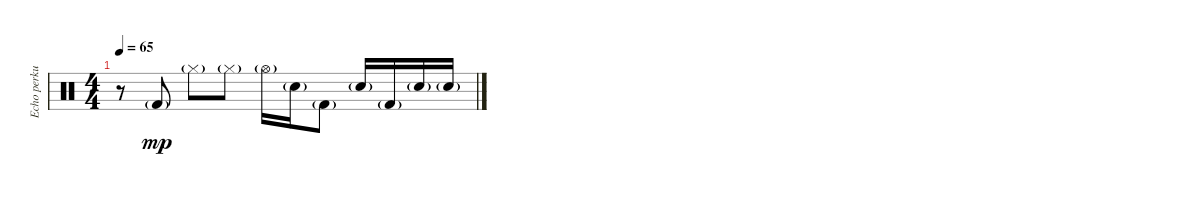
\track ("Echo perkusji 2" "Echo perku") {instrument percussion}
\staff {score}
\articulation defaults
\ts (4 4)
\tempo 65
\clef neutral
\ks c
r.8{dy mp} "Kick (hit) 2"{g}.8 "Hi-Hat (closed)"{g}.8 "Hi-Hat (closed)"{g}.8 "Hi-Hat (open)"{g}.16 "Snare (hit) 2"{g}.16 "Kick (hit) 2"{g}.8 "Snare (hit) 2"{g}.16 "Kick (hit) 2"{g}.16 "Snare (hit) 2"{g}.16 "Snare (hit) 2"{g}.16
